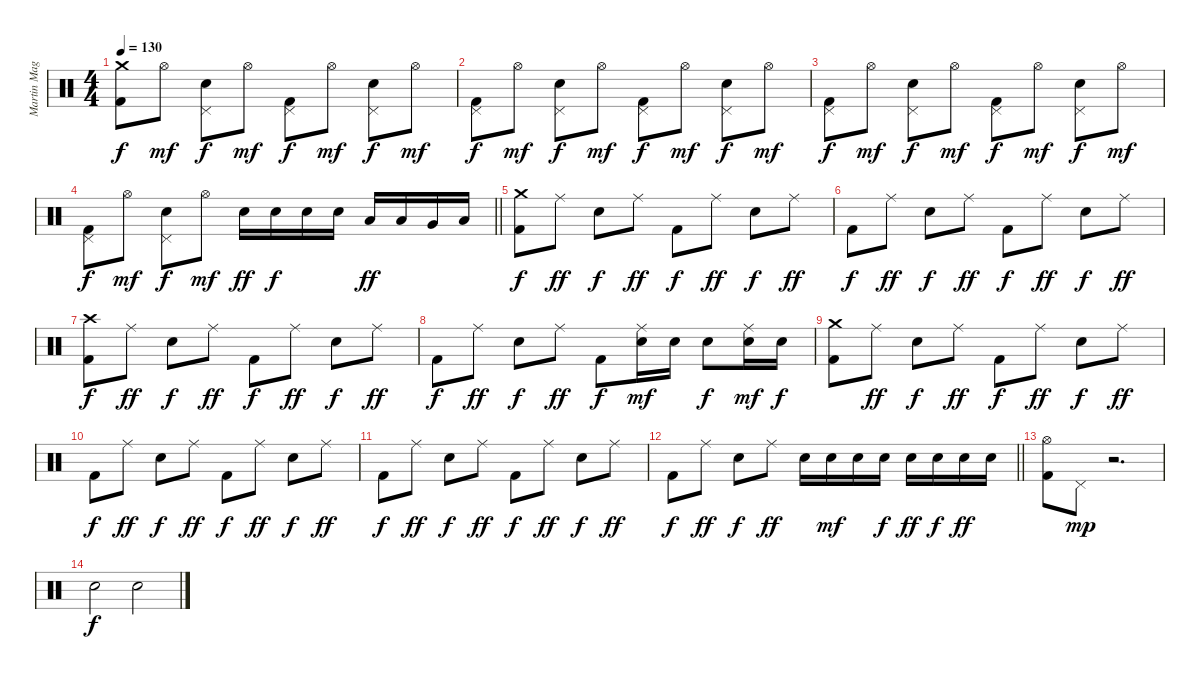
\track ("Martin Magliano" "Martin Mag") {instrument percussion}
\staff {score}
\articulation defaults
\ts (4 4)
\tempo 130
\clef neutral
\ks c
("Crash medium (hit)" "Kick (hit) 2").8{dy f} "Hi-Hat (open)".8{dy mf} ("Pedal Hi-Hat (hit)" "Snare (hit) 2").8{dy f} "Hi-Hat (open)".8{dy mf} ("Pedal Hi-Hat (hit)" "Kick (hit) 2").8{dy f} "Hi-Hat (open)".8{dy mf} ("Pedal Hi-Hat (hit)" "Snare (hit) 2").8{dy f} "Hi-Hat (open)".8{dy mf} |
("Pedal Hi-Hat (hit)" "Kick (hit) 2").8{dy f} "Hi-Hat (open)".8{dy mf} ("Pedal Hi-Hat (hit)" "Snare (hit) 2").8{dy f} "Hi-Hat (open)".8{dy mf} ("Pedal Hi-Hat (hit)" "Kick (hit) 2").8{dy f} "Hi-Hat (open)".8{dy mf} ("Pedal Hi-Hat (hit)" "Snare (hit) 2").8{dy f} "Hi-Hat (open)".8{dy mf} |
("Pedal Hi-Hat (hit)" "Kick (hit) 2").8{dy f} "Hi-Hat (open)".8{dy mf} ("Pedal Hi-Hat (hit)" "Snare (hit) 2").8{dy f} "Hi-Hat (open)".8{dy mf} ("Pedal Hi-Hat (hit)" "Kick (hit) 2").8{dy f} "Hi-Hat (open)".8{dy mf} ("Pedal Hi-Hat (hit)" "Snare (hit) 2").8{dy f} "Hi-Hat (open)".8{dy mf} |
\barLineRight lightlight
("Pedal Hi-Hat (hit)" "Kick (hit) 2").8{dy f} "Hi-Hat (open)".8{dy mf} ("Pedal Hi-Hat (hit)" "Snare (hit) 2").8{dy f} "Hi-Hat (open)".8{dy mf} "Snare (hit) 2".16{dy ff} "Snare (hit) 2".16{dy f} "Snare (hit) 2".16 "Snare (hit) 2".16 "Low Tom (hit)".16{dy ff} "Low Tom (hit)".16 "Very Low Tom (hit)".16 "Low Floor Tom (hit)".16 |
("Crash medium (hit)" "Kick (hit) 2").8{dy f} "Ride (middle)".8{dy ff} "Snare (hit) 2".8{dy f} "Ride (middle)".8{dy ff} "Kick (hit) 2".8{dy f} "Ride (middle)".8{dy ff} "Snare (hit) 2".8{dy f} "Ride (middle)".8{dy ff} |
"Kick (hit) 2".8{dy f} "Ride (middle)".8{dy ff} "Snare (hit) 2".8{dy f} "Ride (middle)".8{dy ff} "Kick (hit) 2".8{dy f} "Ride (middle)".8{dy ff} "Snare (hit) 2".8{dy f} "Ride (middle)".8{dy ff} |
("Crash high (hit)" "Kick (hit) 2").8{dy f} "Ride (middle)".8{dy ff} "Snare (hit) 2".8{dy f} "Ride (middle)".8{dy ff} "Kick (hit) 2".8{dy f} "Ride (middle)".8{dy ff} "Snare (hit) 2".8{dy f} "Ride (middle)".8{dy ff} |
"Kick (hit) 2".8{dy f} "Ride (middle)".8{dy ff} "Snare (hit) 2".8{dy f} "Ride (middle)".8{dy ff} "Kick (hit) 2".8{dy f} ("Ride (middle)" "Snare (hit) 2").16{dy mf} "Snare (hit) 2".16 "Snare (hit) 2".8{dy f} ("Ride (middle)" "Snare (hit) 2").16{dy mf} "Snare (hit) 2".16{dy f} |
("Crash medium (hit)" "Kick (hit) 2").8 "Ride (middle)".8{dy ff} "Snare (hit) 2".8{dy f} "Ride (middle)".8{dy ff} "Kick (hit) 2".8{dy f} "Ride (middle)".8{dy ff} "Snare (hit) 2".8{dy f} "Ride (middle)".8{dy ff} |
"Kick (hit) 2".8{dy f} "Ride (middle)".8{dy ff} "Snare (hit) 2".8{dy f} "Ride (middle)".8{dy ff} "Kick (hit) 2".8{dy f} "Ride (middle)".8{dy ff} "Snare (hit) 2".8{dy f} "Ride (middle)".8{dy ff} |
"Kick (hit) 2".8{dy f} "Ride (middle)".8{dy ff} "Snare (hit) 2".8{dy f} "Ride (middle)".8{dy ff} "Kick (hit) 2".8{dy f} "Ride (middle)".8{dy ff} "Snare (hit) 2".8{dy f} "Ride (middle)".8{dy ff} |
\barLineRight lightlight "Kick (hit) 2".8{dy f} "Ride (middle)".8{dy ff} "Snare (hit) 2".8{dy f} "Ride (middle)".8{dy ff} "Snare (hit) 2".16 "Snare (hit) 2".16{dy mf} "Snare (hit) 2".16 "Snare (hit) 2".16{dy f} "Snare (hit) 2".16{dy ff} "Snare (hit) 2".16{dy f} "Snare (hit) 2".16{dy ff} "Snare (hit) 2".16
|
("Hi-Hat (open)" "Kick (hit) 2").8 "Pedal Hi-Hat (hit)".8{dy mp} r.2{d} |
"Snare (hit)".2{dy f} "Snare (hit)".2
